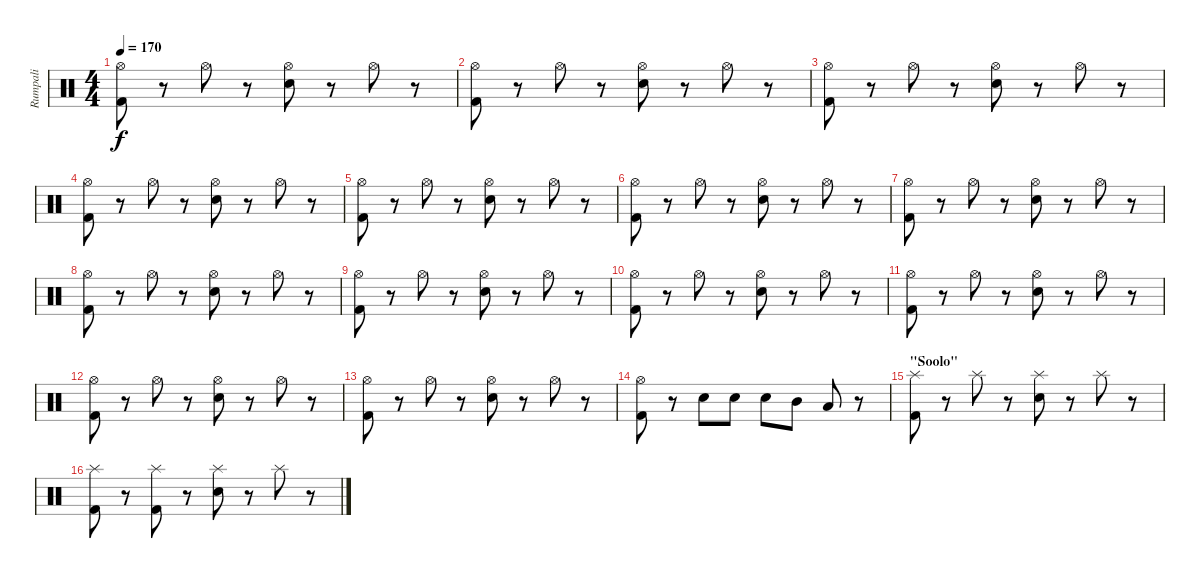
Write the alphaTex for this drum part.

\track ("Rumpali" "Rumpali") {instrument percussion}
\staff {score}
\articulation defaults
\ts (4 4)
\tempo 170
\clef neutral
\ks c
("Hi-Hat (open)" "Kick (hit) 2").8{dy f} r.8 "Hi-Hat (open)".8 r.8 ("Hi-Hat (open)" "Electric Snare (hit)").8 r.8 "Hi-Hat (open)".8 r.8 |
("Hi-Hat (open)" "Kick (hit) 2").8 r.8 "Hi-Hat (open)".8 r.8 ("Hi-Hat (open)" "Electric Snare (hit)").8 r.8 "Hi-Hat (open)".8 r.8 |
("Hi-Hat (open)" "Kick (hit) 2").8 r.8 "Hi-Hat (open)".8 r.8 ("Hi-Hat (open)" "Electric Snare (hit)").8 r.8 "Hi-Hat (open)".8 r.8 |
("Hi-Hat (open)" "Kick (hit) 2").8 r.8 "Hi-Hat (open)".8 r.8 ("Hi-Hat (open)" "Electric Snare (hit)").8 r.8 "Hi-Hat (open)".8 r.8 |
("Hi-Hat (open)" "Kick (hit) 2").8 r.8 "Hi-Hat (open)".8 r.8 ("Hi-Hat (open)" "Electric Snare (hit)").8 r.8 "Hi-Hat (open)".8 r.8 |
("Hi-Hat (open)" "Kick (hit) 2").8 r.8 "Hi-Hat (open)".8 r.8 ("Hi-Hat (open)" "Electric Snare (hit)").8 r.8 "Hi-Hat (open)".8 r.8 |
("Hi-Hat (open)" "Kick (hit) 2").8 r.8 "Hi-Hat (open)".8 r.8 ("Hi-Hat (open)" "Electric Snare (hit)").8 r.8 "Hi-Hat (open)".8 r.8 |
("Hi-Hat (open)" "Kick (hit) 2").8 r.8 "Hi-Hat (open)".8 r.8 ("Hi-Hat (open)" "Electric Snare (hit)").8 r.8 "Hi-Hat (open)".8 r.8 |
("Hi-Hat (open)" "Kick (hit) 2").8 r.8 "Hi-Hat (open)".8 r.8 ("Hi-Hat (open)" "Electric Snare (hit)").8 r.8 "Hi-Hat (open)".8 r.8 |
("Hi-Hat (open)" "Kick (hit) 2").8 r.8 "Hi-Hat (open)".8 r.8 ("Hi-Hat (open)" "Electric Snare (hit)").8 r.8 "Hi-Hat (open)".8 r.8 |
("Hi-Hat (open)" "Kick (hit) 2").8 r.8 "Hi-Hat (open)".8 r.8 ("Hi-Hat (open)" "Electric Snare (hit)").8 r.8 "Hi-Hat (open)".8 r.8 |
("Hi-Hat (open)" "Kick (hit) 2").8 r.8 "Hi-Hat (open)".8 r.8 ("Hi-Hat (open)" "Electric Snare (hit)").8 r.8 "Hi-Hat (open)".8 r.8 |
("Hi-Hat (open)" "Kick (hit) 2").8 r.8 "Hi-Hat (open)".8 r.8 ("Hi-Hat (open)" "Electric Snare (hit)").8 r.8 "Hi-Hat (open)".8 r.8 |
("Hi-Hat (open)" "Kick (hit) 2").8 r.8 "Electric Snare (hit)".8 "Electric Snare (hit)".8 "Electric Snare (hit)".8 "Mid Tom (hit)".8 "Low Tom (hit)".8 r.8 |
\section ("" "\"Soolo\"")
("Splash (hit)" "Kick (hit) 2").8 r.8 "Splash (hit)".8 r.8 ("Splash (hit)" "Electric Snare (hit)").8 r.8 "Splash (hit)".8 r.8 |
("Splash (hit)" "Kick (hit) 2").8 r.8 ("Splash (hit)" "Kick (hit) 2").8 r.8 ("Splash (hit)" "Electric Snare (hit)").8 r.8 "Splash (hit)".8 r.8
